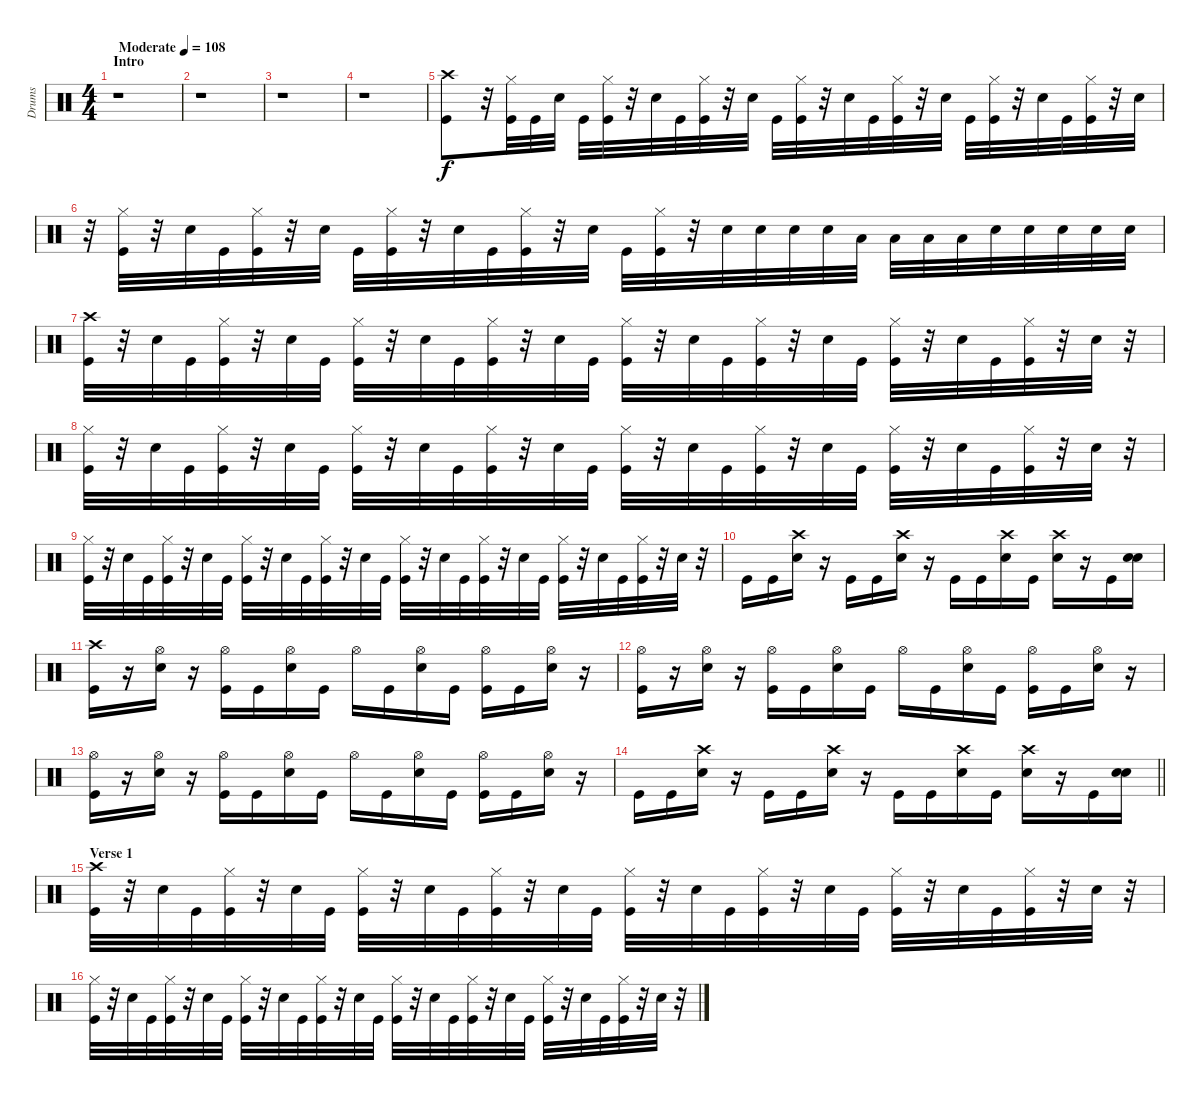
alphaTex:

\track ("Drums" "Drums") {instrument percussion}
\staff {score}
\articulation defaults
\ts (4 4)
\section ("" "Intro")
\tempo (108 "Moderate")
\clef neutral
\ks c
r.1{dy f} |
r.1 |
r.1 |
r.1 |
("Crash high (hit)" "Kick (hit)").8 r.32 ("Hi-Hat (closed)" "Kick (hit)").32 "Kick (hit)".32 "Snare (hit) 2".32 "Kick (hit)".32 ("Hi-Hat (closed)" "Kick (hit)").32 r.32 "Snare (hit) 2".32 "Kick (hit)".32 ("Hi-Hat (closed)" "Kick (hit)").32 r.32 "Snare (hit) 2".32 "Kick (hit)".32 ("Hi-Hat (closed)" "Kick (hit)").32 r.32 "Snare (hit) 2".32 "Kick (hit)".32 ("Hi-Hat (closed)" "Kick (hit)").32 r.32 "Snare (hit) 2".32 "Kick (hit)".32 ("Hi-Hat (closed)" "Kick (hit)").32 r.32 "Snare (hit) 2".32 "Kick (hit)".32 ("Hi-Hat (closed)" "Kick (hit)").32 r.32 "Snare (hit) 2".32 |
r.32 ("Hi-Hat (closed)" "Kick (hit)").32 r.32 "Snare (hit) 2".32 "Kick (hit)".32 ("Hi-Hat (closed)" "Kick (hit)").32 r.32 "Snare (hit) 2".32 "Kick (hit)".32 ("Hi-Hat (closed)" "Kick (hit)").32 r.32 "Snare (hit) 2".32 "Kick (hit)".32 ("Hi-Hat (closed)" "Kick (hit)").32 r.32 "Snare (hit) 2".32 "Kick (hit)".32 ("Hi-Hat (closed)" "Kick (hit)").32 r.32 "Snare (hit) 2".32 "Snare (hit) 2".32 "Snare (hit) 2".32 "Snare (hit) 2".32 "Low Tom (hit)".32 "Low Tom (hit)".32 "Low Tom (hit)".32 "Low Tom (hit)".32 "Snare (hit) 2".32 "Snare (hit) 2".32 "Snare (hit) 2".32 "Snare (hit) 2".32 "Snare (hit) 2".32 |
("Crash high (hit)" "Kick (hit)").32 r.32 "Snare (hit) 2".32 "Kick (hit)".32 ("Hi-Hat (closed)" "Kick (hit)").32 r.32 "Snare (hit) 2".32 "Kick (hit)".32 ("Hi-Hat (closed)" "Kick (hit)").32 r.32 "Snare (hit) 2".32 "Kick (hit)".32 ("Hi-Hat (closed)" "Kick (hit)").32 r.32 "Snare (hit) 2".32 "Kick (hit)".32 ("Hi-Hat (closed)" "Kick (hit)").32 r.32 "Snare (hit) 2".32 "Kick (hit)".32 ("Hi-Hat (closed)" "Kick (hit)").32 r.32 "Snare (hit) 2".32 "Kick (hit)".32 ("Hi-Hat (closed)" "Kick (hit)").32 r.32 "Snare (hit) 2".32 "Kick (hit)".32 ("Hi-Hat (closed)" "Kick (hit)").32 r.32 "Snare (hit) 2".32 r.32 |
("Hi-Hat (closed)" "Kick (hit)").32 r.32 "Snare (hit) 2".32 "Kick (hit)".32 ("Hi-Hat (closed)" "Kick (hit)").32 r.32 "Snare (hit) 2".32 "Kick (hit)".32 ("Hi-Hat (closed)" "Kick (hit)").32 r.32 "Snare (hit) 2".32 "Kick (hit)".32 ("Hi-Hat (closed)" "Kick (hit)").32 r.32 "Snare (hit) 2".32 "Kick (hit)".32 ("Hi-Hat (closed)" "Kick (hit)").32 r.32 "Snare (hit) 2".32 "Kick (hit)".32 ("Hi-Hat (closed)" "Kick (hit)").32 r.32 "Snare (hit) 2".32 "Kick (hit)".32 ("Hi-Hat (closed)" "Kick (hit)").32 r.32 "Snare (hit) 2".32 "Kick (hit)".32 ("Hi-Hat (closed)" "Kick (hit)").32 r.32 "Snare (hit) 2".32 r.32 |
("Hi-Hat (closed)" "Kick (hit)").32 r.32 "Snare (hit) 2".32 "Kick (hit)".32 ("Hi-Hat (closed)" "Kick (hit)").32 r.32 "Snare (hit) 2".32 "Kick (hit)".32 ("Hi-Hat (closed)" "Kick (hit)").32 r.32 "Snare (hit) 2".32 "Kick (hit)".32 ("Hi-Hat (closed)" "Kick (hit)").32 r.32 "Snare (hit) 2".32 "Kick (hit)".32 ("Hi-Hat (closed)" "Kick (hit)").32 r.32 "Snare (hit) 2".32 "Kick (hit)".32 ("Hi-Hat (closed)" "Kick (hit)").32 r.32 "Snare (hit) 2".32 "Kick (hit)".32 ("Hi-Hat (closed)" "Kick (hit)").32 r.32 "Snare (hit) 2".32 "Kick (hit)".32 ("Hi-Hat (closed)" "Kick (hit)").32 r.32 "Snare (hit) 2".32 r.32 |
"Kick (hit)".16 "Kick (hit)".16 ("Crash high (hit)" "Snare (hit) 2").16 r.16 "Kick (hit)".16 "Kick (hit)".16 ("Crash high (hit)" "Snare (hit) 2").16 r.16 "Kick (hit)".16 "Kick (hit)".16 ("Crash high (hit)" "Snare (hit) 2").16 "Kick (hit)".16 ("Crash high (hit)" "Snare (hit) 2").16 r.16 "Kick (hit)".16 ("Snare (hit) 2" "Snare (hit) 2").16 |
("Crash high (hit)" "Kick (hit)").16 r.16 ("Hi-Hat (open)" "Snare (hit) 2").16 r.16 ("Hi-Hat (open)" "Kick (hit)").16 "Kick (hit)".16 ("Hi-Hat (open)" "Snare (hit) 2").16 "Kick (hit)".16 "Hi-Hat (open)".16 "Kick (hit)".16 ("Hi-Hat (open)" "Snare (hit) 2").16 "Kick (hit)".16 ("Hi-Hat (open)" "Kick (hit)").16 "Kick (hit)".16 ("Hi-Hat (open)" "Snare (hit) 2").16 r.16 |
("Hi-Hat (open)" "Kick (hit)").16 r.16 ("Hi-Hat (open)" "Snare (hit) 2").16 r.16 ("Hi-Hat (open)" "Kick (hit)").16 "Kick (hit)".16 ("Hi-Hat (open)" "Snare (hit) 2").16 "Kick (hit)".16 "Hi-Hat (open)".16 "Kick (hit)".16 ("Hi-Hat (open)" "Snare (hit) 2").16 "Kick (hit)".16 ("Hi-Hat (open)" "Kick (hit)").16 "Kick (hit)".16 ("Hi-Hat (open)" "Snare (hit) 2").16 r.16 |
("Hi-Hat (open)" "Kick (hit)").16 r.16 ("Hi-Hat (open)" "Snare (hit) 2").16 r.16 ("Hi-Hat (open)" "Kick (hit)").16 "Kick (hit)".16 ("Hi-Hat (open)" "Snare (hit) 2").16 "Kick (hit)".16 "Hi-Hat (open)".16 "Kick (hit)".16 ("Hi-Hat (open)" "Snare (hit) 2").16 "Kick (hit)".16 ("Hi-Hat (open)" "Kick (hit)").16 "Kick (hit)".16 ("Hi-Hat (open)" "Snare (hit) 2").16 r.16 |
\barLineRight lightlight "Kick (hit)".16 "Kick (hit)".16
("Crash high (hit)" "Snare (hit) 2").16 r.16 "Kick (hit)".16 "Kick (hit)".16 ("Crash high (hit)" "Snare (hit) 2").16 r.16 "Kick (hit)".16 "Kick (hit)".16 ("Crash high (hit)" "Snare (hit) 2").16 "Kick (hit)".16 ("Crash high (hit)" "Snare (hit) 2").16 r.16 "Kick (hit)".16 ("Snare (hit) 2" "Snare (hit) 2").16 |
\section ("" "Verse 1")
("Crash high (hit)" "Kick (hit)").32 r.32 "Snare (hit) 2".32 "Kick (hit)".32 ("Hi-Hat (closed)" "Kick (hit)").32 r.32 "Snare (hit) 2".32 "Kick (hit)".32 ("Hi-Hat (closed)" "Kick (hit)").32 r.32 "Snare (hit) 2".32 "Kick (hit)".32 ("Hi-Hat (closed)" "Kick (hit)").32 r.32 "Snare (hit) 2".32 "Kick (hit)".32 ("Hi-Hat (closed)" "Kick (hit)").32 r.32 "Snare (hit) 2".32 "Kick (hit)".32 ("Hi-Hat (closed)" "Kick (hit)").32 r.32 "Snare (hit) 2".32 "Kick (hit)".32 ("Hi-Hat (closed)" "Kick (hit)").32 r.32 "Snare (hit) 2".32 "Kick (hit)".32 ("Hi-Hat (closed)" "Kick (hit)").32 r.32 "Snare (hit) 2".32 r.32 |
("Hi-Hat (closed)" "Kick (hit)").32 r.32 "Snare (hit) 2".32 "Kick (hit)".32 ("Hi-Hat (closed)" "Kick (hit)").32 r.32 "Snare (hit) 2".32 "Kick (hit)".32 ("Hi-Hat (closed)" "Kick (hit)").32 r.32 "Snare (hit) 2".32 "Kick (hit)".32 ("Hi-Hat (closed)" "Kick (hit)").32 r.32 "Snare (hit) 2".32 "Kick (hit)".32 ("Hi-Hat (closed)" "Kick (hit)").32 r.32 "Snare (hit) 2".32 "Kick (hit)".32 ("Hi-Hat (closed)" "Kick (hit)").32 r.32 "Snare (hit) 2".32 "Kick (hit)".32 ("Hi-Hat (closed)" "Kick (hit)").32 r.32 "Snare (hit) 2".32 "Kick (hit)".32 ("Hi-Hat (closed)" "Kick (hit)").32 r.32 "Snare (hit) 2".32 r.32
